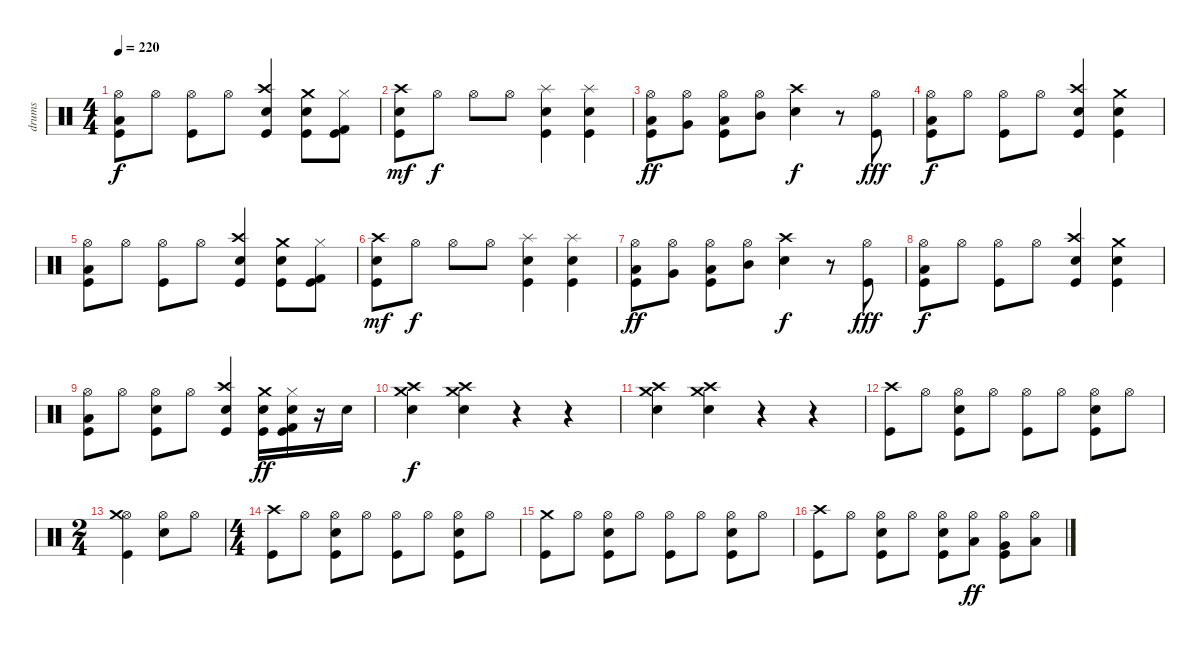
\track ("drums" "drums") {instrument percussion}
\staff {score}
\articulation defaults
\ts (4 4)
\tempo 220
\clef neutral
\ks c
("Low Tom (hit)" "Kick (hit)" "Hi-Hat (open)").8{dy f} "Hi-Hat (open)".8 ("Kick (hit)" "Hi-Hat (open)").8 "Hi-Hat (open)".8 ("Crash high (hit)" "Electric Snare (hit)" "Kick (hit)").4 ("Crash medium (hit)" "Electric Snare (hit)" "Kick (hit)").8 ("Hi-Hat (closed)" "Kick (hit) 2" "Kick (hit)").8 |
("Electric Snare (hit)" "Crash high (hit)" "Kick (hit)").8{dy mf} "Hi-Hat (open)".8{dy f} "Hi-Hat (open)".8 "Hi-Hat (open)".8 ("Electric Snare (hit)" "Splash (hit)" "Kick (hit)").4 ("Electric Snare (hit)" "Splash (hit)" "Kick (hit)").4 |
("Hi-Hat (open)" "Low Floor Tom (hit)" "Kick (hit)").8{dy ff} ("Hi-Hat (open)" "Very Low Tom (hit)").8 ("Hi-Hat (open)" "Low Tom (hit)" "Kick (hit)").8 ("Hi-Hat (open)" "Mid Tom (hit)").8 ("Crash high (hit)" "Electric Snare (hit)").4{dy f} r.8 ("Hi-Hat (open)" "Kick (hit)").8{dy fff} |
("Low Tom (hit)" "Kick (hit)" "Hi-Hat (open)").8{dy f} "Hi-Hat (open)".8 ("Kick (hit)" "Hi-Hat (open)").8 "Hi-Hat (open)".8 ("Crash high (hit)" "Electric Snare (hit)" "Kick (hit)").4 ("Crash medium (hit)" "Electric Snare (hit)" "Kick (hit)").4 |
("Low Tom (hit)" "Kick (hit)" "Hi-Hat (open)").8 "Hi-Hat (open)".8 ("Kick (hit)" "Hi-Hat (open)").8 "Hi-Hat (open)".8 ("Crash high (hit)" "Electric Snare (hit)" "Kick (hit)").4 ("Crash medium (hit)" "Electric Snare (hit)" "Kick (hit)").8 ("Hi-Hat (closed)" "Kick (hit) 2" "Kick (hit)").8 |
("Electric Snare (hit)" "Crash high (hit)" "Kick (hit)").8{dy mf} "Hi-Hat (open)".8{dy f} "Hi-Hat (open)".8 "Hi-Hat (open)".8 ("Electric Snare (hit)" "Splash (hit)" "Kick (hit)").4 ("Electric Snare (hit)" "Splash (hit)" "Kick (hit)").4 |
("Hi-Hat (open)" "Low Floor Tom (hit)" "Kick (hit)").8{dy ff} ("Hi-Hat (open)" "Very Low Tom (hit)").8 ("Hi-Hat (open)" "Low Tom (hit)" "Kick (hit)").8 ("Hi-Hat (open)" "Mid Tom (hit)").8 ("Crash high (hit)" "Electric Snare (hit)").4{dy f} r.8 ("Hi-Hat (open)" "Kick (hit)").8{dy fff} |
("Low Tom (hit)" "Kick (hit)" "Hi-Hat (open)").8{dy f} "Hi-Hat (open)".8 ("Kick (hit)" "Hi-Hat (open)").8 "Hi-Hat (open)".8 ("Crash high (hit)" "Electric Snare (hit)" "Kick (hit)").4 ("Crash medium (hit)" "Electric Snare (hit)" "Kick (hit)").4 |
("Low Tom (hit)" "Kick (hit)" "Hi-Hat (open)").8 "Hi-Hat (open)".8 ("Electric Snare (hit)" "Kick (hit)" "Hi-Hat (open)").8 "Hi-Hat (open)".8 ("Crash high (hit)" "Electric Snare (hit)" "Kick (hit)").4 ("Crash medium (hit)" "Electric Snare (hit)" "Kick (hit)").16{dy ff} ("Electric Snare (hit)" "Hi-Hat (closed)" "Kick (hit) 2" "Kick (hit)").16 r.16 "Electric Snare (hit)".16 |
("Crash medium (hit)" "Crash high (hit)" "Electric Snare (hit)").4{dy f} ("Crash medium (hit)" "Crash high (hit)" "Electric Snare (hit)").4 r.4 r.4 |
("Crash medium (hit)" "Crash high (hit)" "Electric Snare (hit)").4 ("Crash medium (hit)" "Crash high (hit)" "Electric Snare (hit)").4 r.4 r.4 |
("Crash high (hit)" "Kick (hit)").8 "Hi-Hat (open)".8 ("Hi-Hat (open)" "Electric Snare (hit)" "Kick (hit)").8 "Hi-Hat (open)".8 ("Hi-Hat (open)" "Kick (hit)").8 "Hi-Hat (open)".8 ("Hi-Hat (open)" "Electric Snare (hit)" "Kick (hit)").8 "Hi-Hat (open)".8 |
\ts (2 4)
("Hi-Hat (open)" "Crash medium (hit)" "Kick (hit)").4 ("Hi-Hat (open)" "Electric Snare (hit)").8 "Hi-Hat (open)".8 |
\ts (4 4)
("Crash high (hit)" "Kick (hit)").8 "Hi-Hat (open)".8 ("Hi-Hat (open)" "Electric Snare (hit)" "Kick (hit)").8 "Hi-Hat (open)".8 ("Hi-Hat (open)" "Kick (hit)").8 "Hi-Hat (open)".8 ("Hi-Hat (open)" "Electric Snare (hit)" "Kick (hit)").8 "Hi-Hat (open)".8 |
("Crash medium (hit)" "Kick (hit)").8 "Hi-Hat (open)".8 ("Hi-Hat (open)" "Electric Snare (hit)" "Kick (hit)").8 "Hi-Hat (open)".8 ("Hi-Hat (open)" "Kick (hit)").8 "Hi-Hat (open)".8 ("Hi-Hat (open)" "Electric Snare (hit)" "Kick (hit)").8 "Hi-Hat (open)".8 |
("Crash high (hit)" "Kick (hit)").8 "Hi-Hat (open)".8 ("Hi-Hat (open)" "Electric Snare (hit)" "Kick (hit)").8 "Hi-Hat (open)".8 ("Hi-Hat (open)" "Electric Snare (hit)" "Kick (hit)").8 ("Hi-Hat (open)" "Low Floor Tom (hit)").8{dy ff} ("Hi-Hat (open)" "Very Low Tom (hit)" "Kick (hit)").8 ("Hi-Hat (open)" "Low Tom (hit)").8
